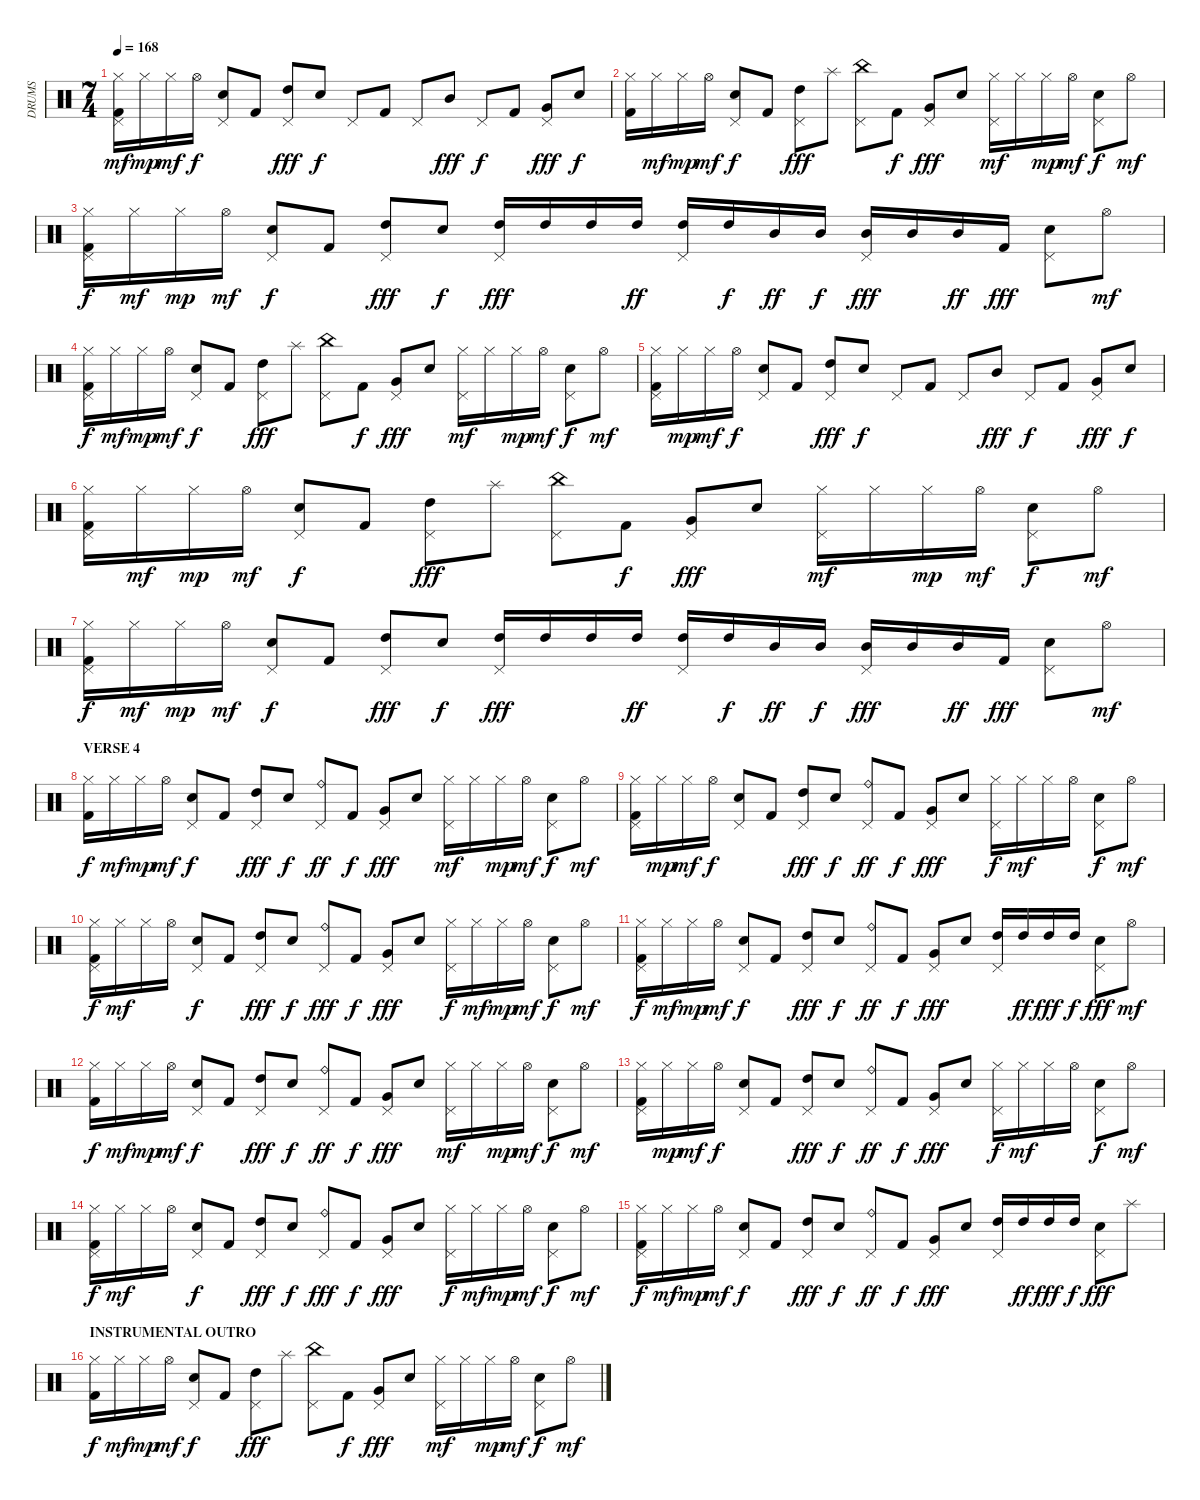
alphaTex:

\track ("DRUMS" "DRUMS") {instrument percussion}
\staff {score}
\articulation defaults
\ts (7 4)
\tempo 168
\clef neutral
\ks c
("Hi-Hat (closed)" "Pedal Hi-Hat (hit)" "Kick (hit) 2").16{dy mf} "Hi-Hat (closed)".16{dy mp} "Hi-Hat (closed)".16{dy mf} "Hi-Hat (open)".16{dy f} ("Electric Snare (hit)" "Pedal Hi-Hat (hit)").8 "Kick (hit) 2".8 ("High Tom (hit)" "Pedal Hi-Hat (hit)").8{dy fff} "Electric Snare (hit)".8{dy f} "Pedal Hi-Hat (hit)".8 "Kick (hit) 2".8 "Pedal Hi-Hat (hit)".8 "Mid Tom (hit)".8{dy fff} "Pedal Hi-Hat (hit)".8{dy f} "Kick (hit) 2".8 ("Very Low Tom (hit)" "Pedal Hi-Hat (hit)").8{dy fff} "Electric Snare (hit)".8{dy f} |
("Hi-Hat (closed)" "Kick (hit) 2").16 "Hi-Hat (closed)".16{dy mf} "Hi-Hat (closed)".16{dy mp} "Hi-Hat (open)".16{dy mf} ("Electric Snare (hit)" "Pedal Hi-Hat (hit)").8{dy f} "Kick (hit) 2".8 ("High Tom (hit)" "Pedal Hi-Hat (hit)").8{dy fff} "Splash (hit)".8 ("China (hit)" "Pedal Hi-Hat (hit)").8 "Kick (hit) 2".8{dy f} ("Very Low Tom (hit)" "Pedal Hi-Hat (hit)").8{dy fff} "Electric Snare (hit)".8 ("Hi-Hat (closed)" "Pedal Hi-Hat (hit)").16{dy mf} "Hi-Hat (closed)".16 "Hi-Hat (closed)".16{dy mp} "Hi-Hat (open)".16{dy mf} ("Electric Snare (hit)" "Pedal Hi-Hat (hit)").8{dy f} "Hi-Hat (open)".8{dy mf} |
("Hi-Hat (closed)" "Pedal Hi-Hat (hit)" "Kick (hit) 2").16{dy f} "Hi-Hat (closed)".16{dy mf} "Hi-Hat (closed)".16{dy mp} "Hi-Hat (open)".16{dy mf} ("Electric Snare (hit)" "Pedal Hi-Hat (hit)").8{dy f} "Kick (hit) 2".8 ("High Tom (hit)" "Pedal Hi-Hat (hit)").8{dy fff} "Electric Snare (hit)".8{dy f} ("High Tom (hit)" "Pedal Hi-Hat (hit)").16{dy fff} "High Tom (hit)".16 "High Tom (hit)".16 "High Tom (hit)".16{dy ff} ("High Tom (hit)" "Pedal Hi-Hat (hit)").16 "High Tom (hit)".16{dy f} "Mid Tom (hit)".16{dy ff} "Mid Tom (hit)".16{dy f} ("Mid Tom (hit)" "Pedal Hi-Hat (hit)").16{dy fff} "Mid Tom (hit)".16 "Mid Tom (hit)".16{dy ff} "Kick (hit) 2".16{dy fff} ("Electric Snare (hit)" "Pedal Hi-Hat (hit)").8 "Hi-Hat (open)".8{dy mf} |
("Hi-Hat (closed)" "Pedal Hi-Hat (hit)" "Kick (hit) 2").16{dy f} "Hi-Hat (closed)".16{dy mf} "Hi-Hat (closed)".16{dy mp} "Hi-Hat (open)".16{dy mf} ("Electric Snare (hit)" "Pedal Hi-Hat (hit)").8{dy f} "Kick (hit) 2".8 ("High Tom (hit)" "Pedal Hi-Hat (hit)").8{dy fff} "Splash (hit)".8 ("China (hit)" "Pedal Hi-Hat (hit)").8 "Kick (hit) 2".8{dy f} ("Very Low Tom (hit)" "Pedal Hi-Hat (hit)").8{dy fff} "Electric Snare (hit)".8 ("Hi-Hat (closed)" "Pedal Hi-Hat (hit)").16{dy mf} "Hi-Hat (closed)".16 "Hi-Hat (closed)".16{dy mp} "Hi-Hat (open)".16{dy mf} ("Electric Snare (hit)" "Pedal Hi-Hat (hit)").8{dy f} "Hi-Hat (open)".8{dy mf} |
("Hi-Hat (closed)" "Pedal Hi-Hat (hit)" "Kick (hit) 2").16 "Hi-Hat (closed)".16{dy mp} "Hi-Hat (closed)".16{dy mf} "Hi-Hat (open)".16{dy f} ("Electric Snare (hit)" "Pedal Hi-Hat (hit)").8 "Kick (hit) 2".8 ("High Tom (hit)" "Pedal Hi-Hat (hit)").8{dy fff} "Electric Snare (hit)".8{dy f} "Pedal Hi-Hat (hit)".8 "Kick (hit) 2".8 "Pedal Hi-Hat (hit)".8 "Mid Tom (hit)".8{dy fff} "Pedal Hi-Hat (hit)".8{dy f} "Kick (hit) 2".8 ("Very Low Tom (hit)" "Pedal Hi-Hat (hit)").8{dy fff} "Electric Snare (hit)".8{dy f} |
("Hi-Hat (closed)" "Pedal Hi-Hat (hit)" "Kick (hit) 2").16 "Hi-Hat (closed)".16{dy mf} "Hi-Hat (closed)".16{dy mp} "Hi-Hat (open)".16{dy mf} ("Electric Snare (hit)" "Pedal Hi-Hat (hit)").8{dy f} "Kick (hit) 2".8 ("High Tom (hit)" "Pedal Hi-Hat (hit)").8{dy fff} "Splash (hit)".8 ("China (hit)" "Pedal Hi-Hat (hit)").8 "Kick (hit) 2".8{dy f} ("Very Low Tom (hit)" "Pedal Hi-Hat (hit)").8{dy fff} "Electric Snare (hit)".8 ("Hi-Hat (closed)" "Pedal Hi-Hat (hit)").16{dy mf} "Hi-Hat (closed)".16 "Hi-Hat (closed)".16{dy mp} "Hi-Hat (open)".16{dy mf} ("Electric Snare (hit)" "Pedal Hi-Hat (hit)").8{dy f} "Hi-Hat (open)".8{dy mf} |
("Hi-Hat (closed)" "Pedal Hi-Hat (hit)" "Kick (hit) 2").16{dy f} "Hi-Hat (closed)".16{dy mf} "Hi-Hat (closed)".16{dy mp} "Hi-Hat (open)".16{dy mf} ("Electric Snare (hit)" "Pedal Hi-Hat (hit)").8{dy f} "Kick (hit) 2".8 ("High Tom (hit)" "Pedal Hi-Hat (hit)").8{dy fff} "Electric Snare (hit)".8{dy f} ("High Tom (hit)" "Pedal Hi-Hat (hit)").16{dy fff} "High Tom (hit)".16 "High Tom (hit)".16 "High Tom (hit)".16{dy ff} ("High Tom (hit)" "Pedal Hi-Hat (hit)").16 "High Tom (hit)".16{dy f} "Mid Tom (hit)".16{dy ff} "Mid Tom (hit)".16{dy f} ("Mid Tom (hit)" "Pedal Hi-Hat (hit)").16{dy fff} "Mid Tom (hit)".16 "Mid Tom (hit)".16{dy ff} "Kick (hit) 2".16{dy fff} ("Electric Snare (hit)" "Pedal Hi-Hat (hit)").8 "Hi-Hat (open)".8{dy mf} |
\section ("" "VERSE 4")
("Hi-Hat (closed)" "Kick (hit) 2").16{dy f} "Hi-Hat (closed)".16{dy mf} "Hi-Hat (closed)".16{dy mp} "Hi-Hat (open)".16{dy mf} ("Electric Snare (hit)" "Pedal Hi-Hat (hit)").8{dy f} "Kick (hit) 2".8 ("High Tom (hit)" "Pedal Hi-Hat (hit)").8{dy fff} "Electric Snare (hit)".8{dy f} ("Ride (bell)" "Pedal Hi-Hat (hit)").8{dy ff} "Kick (hit) 2".8{dy f} ("Very Low Tom (hit)" "Pedal Hi-Hat (hit)").8{dy fff} "Electric Snare (hit)".8 ("Hi-Hat (closed)" "Pedal Hi-Hat (hit)").16{dy mf} "Hi-Hat (closed)".16 "Hi-Hat (closed)".16{dy mp} "Hi-Hat (open)".16{dy mf} ("Electric Snare (hit)" "Pedal Hi-Hat (hit)").8{dy f} "Hi-Hat (open)".8{dy mf} |
("Hi-Hat (closed)" "Pedal Hi-Hat (hit)" "Kick (hit) 2").16 "Hi-Hat (closed)".16{dy mp} "Hi-Hat (closed)".16{dy mf} "Hi-Hat (open)".16{dy f} ("Electric Snare (hit)" "Pedal Hi-Hat (hit)").8 "Kick (hit) 2".8 ("High Tom (hit)" "Pedal Hi-Hat (hit)").8{dy fff} "Electric Snare (hit)".8{dy f} ("Ride (bell)" "Pedal Hi-Hat (hit)").8{dy ff} "Kick (hit) 2".8{dy f} ("Very Low Tom (hit)" "Pedal Hi-Hat (hit)").8{dy fff} "Electric Snare (hit)".8 ("Hi-Hat (closed)" "Pedal Hi-Hat (hit)").16{dy f} "Hi-Hat (closed)".16{dy mf} "Hi-Hat (closed)".16 "Hi-Hat (open)".16 ("Electric Snare (hit)" "Pedal Hi-Hat (hit)").8{dy f} "Hi-Hat (open)".8{dy mf} |
("Hi-Hat (closed)" "Pedal Hi-Hat (hit)" "Kick (hit) 2").16{dy f} "Hi-Hat (closed)".16{dy mf} "Hi-Hat (closed)".16 "Hi-Hat (open)".16 ("Electric Snare (hit)" "Pedal Hi-Hat (hit)").8{dy f} "Kick (hit) 2".8 ("High Tom (hit)" "Pedal Hi-Hat (hit)").8{dy fff} "Electric Snare (hit)".8{dy f} ("Ride (bell)" "Pedal Hi-Hat (hit)").8{dy fff} "Kick (hit) 2".8{dy f} ("Very Low Tom (hit)" "Pedal Hi-Hat (hit)").8{dy fff} "Electric Snare (hit)".8 ("Hi-Hat (closed)" "Pedal Hi-Hat (hit)").16{dy f} "Hi-Hat (closed)".16{dy mf} "Hi-Hat (closed)".16{dy mp} "Hi-Hat (open)".16{dy mf} ("Electric Snare (hit)" "Pedal Hi-Hat (hit)").8{dy f} "Hi-Hat (open)".8{dy mf} |
("Hi-Hat (closed)" "Pedal Hi-Hat (hit)" "Kick (hit) 2").16{dy f} "Hi-Hat (closed)".16{dy mf} "Hi-Hat (closed)".16{dy mp} "Hi-Hat (open)".16{dy mf} ("Electric Snare (hit)" "Pedal Hi-Hat (hit)").8{dy f} "Kick (hit) 2".8 ("High Tom (hit)" "Pedal Hi-Hat (hit)").8{dy fff} "Electric Snare (hit)".8{dy f} ("Ride (bell)" "Pedal Hi-Hat (hit)").8{dy ff} "Kick (hit) 2".8{dy f} ("Very Low Tom (hit)" "Pedal Hi-Hat (hit)").8{dy fff} "Electric Snare (hit)".8 ("High Tom (hit)" "Pedal Hi-Hat (hit)").16 "High Tom (hit)".16{dy ff} "High Tom (hit)".16{dy fff} "High Tom (hit)".16{dy f} ("Electric Snare (hit)" "Pedal Hi-Hat (hit)").8{dy fff} "Hi-Hat (open)".8{dy mf} |
("Hi-Hat (closed)" "Kick (hit) 2").16{dy f} "Hi-Hat (closed)".16{dy mf} "Hi-Hat (closed)".16{dy mp} "Hi-Hat (open)".16{dy mf} ("Electric Snare (hit)" "Pedal Hi-Hat (hit)").8{dy f} "Kick (hit) 2".8 ("High Tom (hit)" "Pedal Hi-Hat (hit)").8{dy fff} "Electric Snare (hit)".8{dy f} ("Ride (bell)" "Pedal Hi-Hat (hit)").8{dy ff} "Kick (hit) 2".8{dy f} ("Very Low Tom (hit)" "Pedal Hi-Hat (hit)").8{dy fff} "Electric Snare (hit)".8 ("Hi-Hat (closed)" "Pedal Hi-Hat (hit)").16{dy mf} "Hi-Hat (closed)".16 "Hi-Hat (closed)".16{dy mp} "Hi-Hat (open)".16{dy mf} ("Electric Snare (hit)" "Pedal Hi-Hat (hit)").8{dy f} "Hi-Hat (open)".8{dy mf} |
("Hi-Hat (closed)" "Pedal Hi-Hat (hit)" "Kick (hit) 2").16 "Hi-Hat (closed)".16{dy mp} "Hi-Hat (closed)".16{dy mf} "Hi-Hat (open)".16{dy f} ("Electric Snare (hit)" "Pedal Hi-Hat (hit)").8 "Kick (hit) 2".8 ("High Tom (hit)" "Pedal Hi-Hat (hit)").8{dy fff} "Electric Snare (hit)".8{dy f} ("Ride (bell)" "Pedal Hi-Hat (hit)").8{dy ff} "Kick (hit) 2".8{dy f} ("Very Low Tom (hit)" "Pedal Hi-Hat (hit)").8{dy fff} "Electric Snare (hit)".8 ("Hi-Hat (closed)" "Pedal Hi-Hat (hit)").16{dy f} "Hi-Hat (closed)".16{dy mf} "Hi-Hat (closed)".16 "Hi-Hat (open)".16 ("Electric Snare (hit)" "Pedal Hi-Hat (hit)").8{dy f} "Hi-Hat (open)".8{dy mf} |
("Hi-Hat (closed)" "Pedal Hi-Hat (hit)" "Kick (hit) 2").16{dy f} "Hi-Hat (closed)".16{dy mf} "Hi-Hat (closed)".16 "Hi-Hat (open)".16 ("Electric Snare (hit)" "Pedal Hi-Hat (hit)").8{dy f} "Kick (hit) 2".8 ("High Tom (hit)" "Pedal Hi-Hat (hit)").8{dy fff} "Electric Snare (hit)".8{dy f} ("Ride (bell)" "Pedal Hi-Hat (hit)").8{dy fff} "Kick (hit) 2".8{dy f} ("Very Low Tom (hit)" "Pedal Hi-Hat (hit)").8{dy fff} "Electric Snare (hit)".8 ("Hi-Hat (closed)" "Pedal Hi-Hat (hit)").16{dy f} "Hi-Hat (closed)".16{dy mf} "Hi-Hat (closed)".16{dy mp} "Hi-Hat (open)".16{dy mf} ("Electric Snare (hit)" "Pedal Hi-Hat (hit)").8{dy f} "Hi-Hat (open)".8{dy mf} |
("Hi-Hat (closed)" "Pedal Hi-Hat (hit)" "Kick (hit) 2").16{dy f} "Hi-Hat (closed)".16{dy mf} "Hi-Hat (closed)".16{dy mp} "Hi-Hat (open)".16{dy mf} ("Electric Snare (hit)" "Pedal Hi-Hat (hit)").8{dy f} "Kick (hit) 2".8 ("High Tom (hit)" "Pedal Hi-Hat (hit)").8{dy fff} "Electric Snare (hit)".8{dy f} ("Ride (bell)" "Pedal Hi-Hat (hit)").8{dy ff} "Kick (hit) 2".8{dy f} ("Very Low Tom (hit)" "Pedal Hi-Hat (hit)").8{dy fff} "Electric Snare (hit)".8 ("High Tom (hit)" "Pedal Hi-Hat (hit)").16 "High Tom (hit)".16{dy ff} "High Tom (hit)".16{dy fff} "High Tom (hit)".16{dy f} ("Electric Snare (hit)" "Pedal Hi-Hat (hit)").8{dy fff} "Splash (hit)".8 |
\section ("" "INSTRUMENTAL OUTRO")
("Hi-Hat (closed)" "Kick (hit) 2").16{dy f} "Hi-Hat (closed)".16{dy mf} "Hi-Hat (closed)".16{dy mp} "Hi-Hat (open)".16{dy mf} ("Electric Snare (hit)" "Pedal Hi-Hat (hit)").8{dy f} "Kick (hit) 2".8 ("High Tom (hit)" "Pedal Hi-Hat (hit)").8{dy fff} "Splash (hit)".8 ("China (hit)" "Pedal Hi-Hat (hit)").8 "Kick (hit) 2".8{dy f} ("Very Low Tom (hit)" "Pedal Hi-Hat (hit)").8{dy fff} "Electric Snare (hit)".8 ("Hi-Hat (closed)" "Pedal Hi-Hat (hit)").16{dy mf} "Hi-Hat (closed)".16 "Hi-Hat (closed)".16{dy mp} "Hi-Hat (open)".16{dy mf} ("Electric Snare (hit)" "Pedal Hi-Hat (hit)").8{dy f} "Hi-Hat (open)".8{dy mf}
